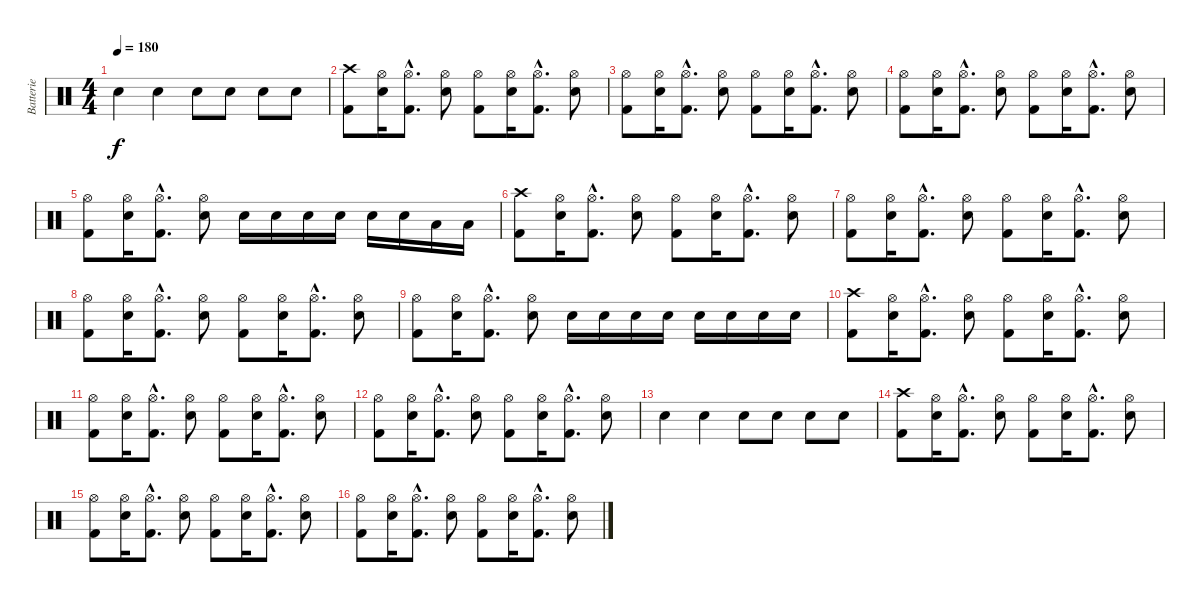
\track ("Batterie" "Batterie") {instrument percussion}
\staff {score}
\articulation defaults
\ts (4 4)
\tempo 180
\clef neutral
\ks c "Electric Snare (hit)".4{dy f} "Electric Snare (hit)".4 "Electric Snare (hit)".8 "Electric Snare (hit)".8 "Electric Snare (hit)".8 "Electric Snare (hit)".8
|
("Crash high (hit)" "Kick (hit) 2").8 ("Hi-Hat (open)" "Electric Snare (hit)").16 ("Hi-Hat (open)"{hac} "Kick (hit) 2"{hac}).8{d} ("Hi-Hat (open)" "Electric Snare (hit)").8 ("Hi-Hat (open)" "Kick (hit) 2").8 ("Hi-Hat (open)" "Electric Snare (hit)").16 ("Hi-Hat (open)"{hac} "Kick (hit) 2"{hac}).8{d} ("Hi-Hat (open)" "Electric Snare (hit)").8 |
("Hi-Hat (open)" "Kick (hit) 2").8 ("Hi-Hat (open)" "Electric Snare (hit)").16 ("Hi-Hat (open)"{hac} "Kick (hit) 2"{hac}).8{d} ("Hi-Hat (open)" "Electric Snare (hit)").8 ("Hi-Hat (open)" "Kick (hit) 2").8 ("Hi-Hat (open)" "Electric Snare (hit)").16 ("Hi-Hat (open)"{hac} "Kick (hit) 2"{hac}).8{d} ("Hi-Hat (open)" "Electric Snare (hit)").8 |
("Hi-Hat (open)" "Kick (hit) 2").8 ("Hi-Hat (open)" "Electric Snare (hit)").16 ("Hi-Hat (open)"{hac} "Kick (hit) 2"{hac}).8{d} ("Hi-Hat (open)" "Electric Snare (hit)").8 ("Hi-Hat (open)" "Kick (hit) 2").8 ("Hi-Hat (open)" "Electric Snare (hit)").16 ("Hi-Hat (open)"{hac} "Kick (hit) 2"{hac}).8{d} ("Hi-Hat (open)" "Electric Snare (hit)").8 |
("Hi-Hat (open)" "Kick (hit) 2").8 ("Hi-Hat (open)" "Electric Snare (hit)").16 ("Hi-Hat (open)"{hac} "Kick (hit) 2"{hac}).8{d} ("Hi-Hat (open)" "Electric Snare (hit)").8 "Electric Snare (hit)".16 "Electric Snare (hit)".16 "Electric Snare (hit)".16 "Electric Snare (hit)".16 "Snare (hit) 2".16 "Snare (hit) 2".16 "Low Tom (hit)".16 "Low Tom (hit)".16 |
("Crash high (hit)" "Kick (hit) 2").8 ("Hi-Hat (open)" "Electric Snare (hit)").16 ("Hi-Hat (open)"{hac} "Kick (hit) 2"{hac}).8{d} ("Hi-Hat (open)" "Electric Snare (hit)").8 ("Hi-Hat (open)" "Kick (hit) 2").8 ("Hi-Hat (open)" "Electric Snare (hit)").16 ("Hi-Hat (open)"{hac} "Kick (hit) 2"{hac}).8{d} ("Hi-Hat (open)" "Electric Snare (hit)").8 |
("Hi-Hat (open)" "Kick (hit) 2").8 ("Hi-Hat (open)" "Electric Snare (hit)").16 ("Hi-Hat (open)"{hac} "Kick (hit) 2"{hac}).8{d} ("Hi-Hat (open)" "Electric Snare (hit)").8 ("Hi-Hat (open)" "Kick (hit) 2").8 ("Hi-Hat (open)" "Electric Snare (hit)").16 ("Hi-Hat (open)"{hac} "Kick (hit) 2"{hac}).8{d} ("Hi-Hat (open)" "Electric Snare (hit)").8 |
("Hi-Hat (open)" "Kick (hit) 2").8 ("Hi-Hat (open)" "Electric Snare (hit)").16 ("Hi-Hat (open)"{hac} "Kick (hit) 2"{hac}).8{d} ("Hi-Hat (open)" "Electric Snare (hit)").8 ("Hi-Hat (open)" "Kick (hit) 2").8 ("Hi-Hat (open)" "Electric Snare (hit)").16 ("Hi-Hat (open)"{hac} "Kick (hit) 2"{hac}).8{d} ("Hi-Hat (open)" "Electric Snare (hit)").8 |
("Hi-Hat (open)" "Kick (hit) 2").8 ("Hi-Hat (open)" "Electric Snare (hit)").16 ("Hi-Hat (open)"{hac} "Kick (hit) 2"{hac}).8{d} ("Hi-Hat (open)" "Electric Snare (hit)").8 "Electric Snare (hit)".16 "Electric Snare (hit)".16 "Electric Snare (hit)".16 "Electric Snare (hit)".16 "Electric Snare (hit)".16 "Electric Snare (hit)".16 "Electric Snare (hit)".16 "Electric Snare (hit)".16 |
("Crash high (hit)" "Kick (hit) 2").8 ("Hi-Hat (open)" "Electric Snare (hit)").16 ("Hi-Hat (open)"{hac} "Kick (hit) 2"{hac}).8{d} ("Hi-Hat (open)" "Electric Snare (hit)").8 ("Hi-Hat (open)" "Kick (hit) 2").8 ("Hi-Hat (open)" "Electric Snare (hit)").16 ("Hi-Hat (open)"{hac} "Kick (hit) 2"{hac}).8{d} ("Hi-Hat (open)" "Electric Snare (hit)").8 |
("Hi-Hat (open)" "Kick (hit) 2").8 ("Hi-Hat (open)" "Electric Snare (hit)").16 ("Hi-Hat (open)"{hac} "Kick (hit) 2"{hac}).8{d} ("Hi-Hat (open)" "Electric Snare (hit)").8 ("Hi-Hat (open)" "Kick (hit) 2").8 ("Hi-Hat (open)" "Electric Snare (hit)").16 ("Hi-Hat (open)"{hac} "Kick (hit) 2"{hac}).8{d} ("Hi-Hat (open)" "Electric Snare (hit)").8 |
("Hi-Hat (open)" "Kick (hit) 2").8 ("Hi-Hat (open)" "Electric Snare (hit)").16 ("Hi-Hat (open)"{hac} "Kick (hit) 2"{hac}).8{d} ("Hi-Hat (open)" "Electric Snare (hit)").8 ("Hi-Hat (open)" "Kick (hit) 2").8 ("Hi-Hat (open)" "Electric Snare (hit)").16 ("Hi-Hat (open)"{hac} "Kick (hit) 2"{hac}).8{d} ("Hi-Hat (open)" "Electric Snare (hit)").8 |
"Electric Snare (hit)".4 "Electric Snare (hit)".4 "Electric Snare (hit)".8 "Electric Snare (hit)".8 "Electric Snare (hit)".8 "Electric Snare (hit)".8 |
("Crash high (hit)" "Kick (hit) 2").8 ("Hi-Hat (open)" "Electric Snare (hit)").16 ("Hi-Hat (open)"{hac} "Kick (hit) 2"{hac}).8{d} ("Hi-Hat (open)" "Electric Snare (hit)").8 ("Hi-Hat (open)" "Kick (hit) 2").8 ("Hi-Hat (open)" "Electric Snare (hit)").16 ("Hi-Hat (open)"{hac} "Kick (hit) 2"{hac}).8{d} ("Hi-Hat (open)" "Electric Snare (hit)").8 |
("Hi-Hat (open)" "Kick (hit) 2").8 ("Hi-Hat (open)" "Electric Snare (hit)").16 ("Hi-Hat (open)"{hac} "Kick (hit) 2"{hac}).8{d} ("Hi-Hat (open)" "Electric Snare (hit)").8 ("Hi-Hat (open)" "Kick (hit) 2").8 ("Hi-Hat (open)" "Electric Snare (hit)").16 ("Hi-Hat (open)"{hac} "Kick (hit) 2"{hac}).8{d} ("Hi-Hat (open)" "Electric Snare (hit)").8 |
("Hi-Hat (open)" "Kick (hit) 2").8 ("Hi-Hat (open)" "Electric Snare (hit)").16 ("Hi-Hat (open)"{hac} "Kick (hit) 2"{hac}).8{d} ("Hi-Hat (open)" "Electric Snare (hit)").8 ("Hi-Hat (open)" "Kick (hit) 2").8 ("Hi-Hat (open)" "Electric Snare (hit)").16 ("Hi-Hat (open)"{hac} "Kick (hit) 2"{hac}).8{d} ("Hi-Hat (open)" "Electric Snare (hit)").8
